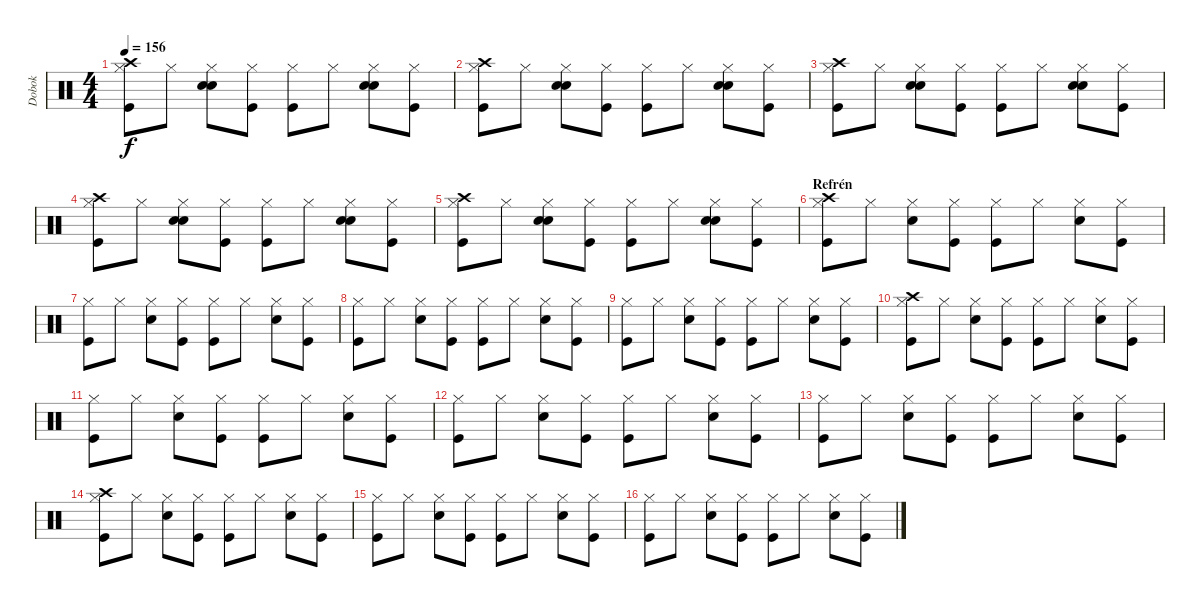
\track ("Dobok" "Dobok") {instrument percussion}
\staff {score}
\articulation defaults
\ts (4 4)
\tempo 156
\clef neutral
\ks c
("Hi-Hat (closed)" "Crash high (hit)" "Kick (hit)").8{dy f} "Hi-Hat (closed)".8 ("Hi-Hat (closed)" "Electric Snare (hit)" "Snare (hit) 2").8 ("Hi-Hat (closed)" "Kick (hit)").8 ("Hi-Hat (closed)" "Kick (hit)").8 "Hi-Hat (closed)".8 ("Hi-Hat (closed)" "Electric Snare (hit)" "Snare (hit) 2").8 ("Hi-Hat (closed)" "Kick (hit)").8 |
("Hi-Hat (closed)" "Crash high (hit)" "Kick (hit)").8 "Hi-Hat (closed)".8 ("Hi-Hat (closed)" "Electric Snare (hit)" "Snare (hit) 2").8 ("Hi-Hat (closed)" "Kick (hit)").8 ("Hi-Hat (closed)" "Kick (hit)").8 "Hi-Hat (closed)".8 ("Hi-Hat (closed)" "Electric Snare (hit)" "Snare (hit) 2").8 ("Hi-Hat (closed)" "Kick (hit)").8 |
("Hi-Hat (closed)" "Crash high (hit)" "Kick (hit)").8 "Hi-Hat (closed)".8 ("Hi-Hat (closed)" "Electric Snare (hit)" "Snare (hit) 2").8 ("Hi-Hat (closed)" "Kick (hit)").8 ("Hi-Hat (closed)" "Kick (hit)").8 "Hi-Hat (closed)".8 ("Hi-Hat (closed)" "Electric Snare (hit)" "Snare (hit) 2").8 ("Hi-Hat (closed)" "Kick (hit)").8 |
("Hi-Hat (closed)" "Crash high (hit)" "Kick (hit)").8 "Hi-Hat (closed)".8 ("Hi-Hat (closed)" "Electric Snare (hit)" "Snare (hit) 2").8 ("Hi-Hat (closed)" "Kick (hit)").8 ("Hi-Hat (closed)" "Kick (hit)").8 "Hi-Hat (closed)".8 ("Hi-Hat (closed)" "Electric Snare (hit)" "Snare (hit) 2").8 ("Hi-Hat (closed)" "Kick (hit)").8 |
("Hi-Hat (closed)" "Crash high (hit)" "Kick (hit)").8 "Hi-Hat (closed)".8 ("Hi-Hat (closed)" "Electric Snare (hit)" "Snare (hit) 2").8 ("Hi-Hat (closed)" "Kick (hit)").8 ("Hi-Hat (closed)" "Kick (hit)").8 "Hi-Hat (closed)".8 ("Hi-Hat (closed)" "Electric Snare (hit)" "Snare (hit) 2").8 ("Hi-Hat (closed)" "Kick (hit)").8 |
\section ("" "Refrén")
("Hi-Hat (closed)" "Crash high (hit)" "Kick (hit)").8 "Hi-Hat (closed)".8 ("Hi-Hat (closed)" "Electric Snare (hit)").8 ("Hi-Hat (closed)" "Kick (hit)").8 ("Hi-Hat (closed)" "Kick (hit)").8 "Hi-Hat (closed)".8 ("Hi-Hat (closed)" "Electric Snare (hit)").8 ("Hi-Hat (closed)" "Kick (hit)").8 |
("Hi-Hat (closed)" "Kick (hit)").8 "Hi-Hat (closed)".8 ("Hi-Hat (closed)" "Electric Snare (hit)").8 ("Hi-Hat (closed)" "Kick (hit)").8 ("Hi-Hat (closed)" "Kick (hit)").8 "Hi-Hat (closed)".8 ("Hi-Hat (closed)" "Electric Snare (hit)").8 ("Hi-Hat (closed)" "Kick (hit)").8 |
("Hi-Hat (closed)" "Kick (hit)").8 "Hi-Hat (closed)".8 ("Hi-Hat (closed)" "Electric Snare (hit)").8 ("Hi-Hat (closed)" "Kick (hit)").8 ("Hi-Hat (closed)" "Kick (hit)").8 "Hi-Hat (closed)".8 ("Hi-Hat (closed)" "Electric Snare (hit)").8 ("Hi-Hat (closed)" "Kick (hit)").8 |
("Hi-Hat (closed)" "Kick (hit)").8 "Hi-Hat (closed)".8 ("Hi-Hat (closed)" "Electric Snare (hit)").8 ("Hi-Hat (closed)" "Kick (hit)").8 ("Hi-Hat (closed)" "Kick (hit)").8 "Hi-Hat (closed)".8 ("Hi-Hat (closed)" "Electric Snare (hit)").8 ("Hi-Hat (closed)" "Kick (hit)").8 |
("Hi-Hat (closed)" "Crash high (hit)" "Kick (hit)").8 "Hi-Hat (closed)".8 ("Hi-Hat (closed)" "Electric Snare (hit)").8 ("Hi-Hat (closed)" "Kick (hit)").8 ("Hi-Hat (closed)" "Kick (hit)").8 "Hi-Hat (closed)".8 ("Hi-Hat (closed)" "Electric Snare (hit)").8 ("Hi-Hat (closed)" "Kick (hit)").8 |
("Hi-Hat (closed)" "Kick (hit)").8 "Hi-Hat (closed)".8 ("Hi-Hat (closed)" "Electric Snare (hit)").8 ("Hi-Hat (closed)" "Kick (hit)").8 ("Hi-Hat (closed)" "Kick (hit)").8 "Hi-Hat (closed)".8 ("Hi-Hat (closed)" "Electric Snare (hit)").8 ("Hi-Hat (closed)" "Kick (hit)").8 |
("Hi-Hat (closed)" "Kick (hit)").8 "Hi-Hat (closed)".8 ("Hi-Hat (closed)" "Electric Snare (hit)").8 ("Hi-Hat (closed)" "Kick (hit)").8 ("Hi-Hat (closed)" "Kick (hit)").8 "Hi-Hat (closed)".8 ("Hi-Hat (closed)" "Electric Snare (hit)").8 ("Hi-Hat (closed)" "Kick (hit)").8 |
("Hi-Hat (closed)" "Kick (hit)").8 "Hi-Hat (closed)".8 ("Hi-Hat (closed)" "Electric Snare (hit)").8 ("Hi-Hat (closed)" "Kick (hit)").8 ("Hi-Hat (closed)" "Kick (hit)").8 "Hi-Hat (closed)".8 ("Hi-Hat (closed)" "Electric Snare (hit)").8 ("Hi-Hat (closed)" "Kick (hit)").8 |
("Hi-Hat (closed)" "Crash high (hit)" "Kick (hit)").8 "Hi-Hat (closed)".8 ("Hi-Hat (closed)" "Electric Snare (hit)").8 ("Hi-Hat (closed)" "Kick (hit)").8 ("Hi-Hat (closed)" "Kick (hit)").8 "Hi-Hat (closed)".8 ("Hi-Hat (closed)" "Electric Snare (hit)").8 ("Hi-Hat (closed)" "Kick (hit)").8 |
("Hi-Hat (closed)" "Kick (hit)").8 "Hi-Hat (closed)".8 ("Hi-Hat (closed)" "Electric Snare (hit)").8 ("Hi-Hat (closed)" "Kick (hit)").8 ("Hi-Hat (closed)" "Kick (hit)").8 "Hi-Hat (closed)".8 ("Hi-Hat (closed)" "Electric Snare (hit)").8 ("Hi-Hat (closed)" "Kick (hit)").8 |
("Hi-Hat (closed)" "Kick (hit)").8 "Hi-Hat (closed)".8 ("Hi-Hat (closed)" "Electric Snare (hit)").8 ("Hi-Hat (closed)" "Kick (hit)").8 ("Hi-Hat (closed)" "Kick (hit)").8 "Hi-Hat (closed)".8 ("Hi-Hat (closed)" "Electric Snare (hit)").8 ("Hi-Hat (closed)" "Kick (hit)").8
